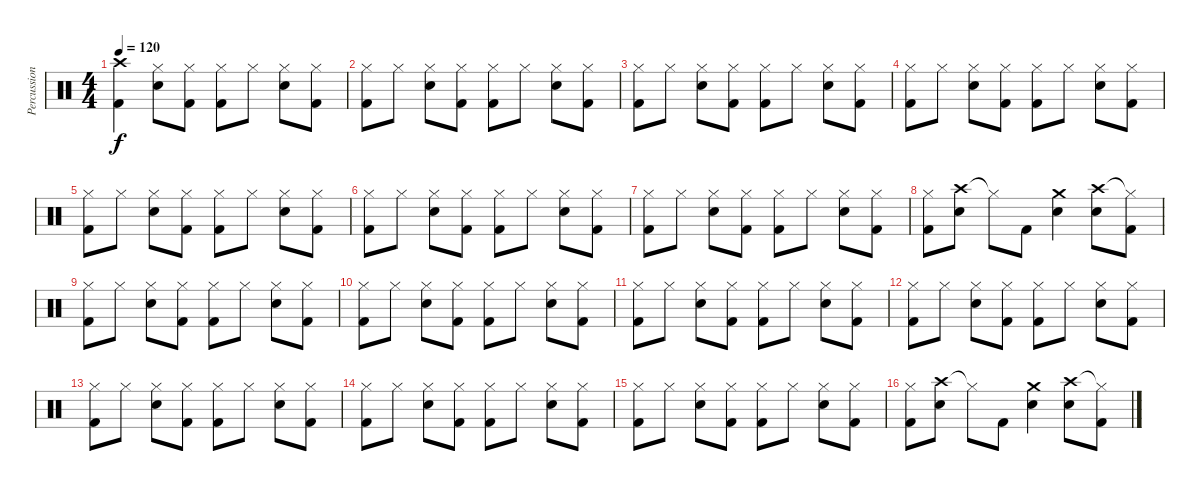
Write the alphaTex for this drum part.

\track ("Percussion" "Percussion") {instrument percussion}
\staff {score}
\articulation defaults
\ts (4 4)
\tempo 120
\clef neutral
\ks c
("Crash high (hit)" "Kick (hit) 2").4{dy f} ("Hi-Hat (closed)" "Electric Snare (hit)").8 ("Hi-Hat (closed)" "Kick (hit) 2").8 ("Hi-Hat (closed)" "Kick (hit) 2").8 "Hi-Hat (closed)".8 ("Hi-Hat (closed)" "Electric Snare (hit)").8 ("Hi-Hat (closed)" "Kick (hit) 2").8 |
("Hi-Hat (closed)" "Kick (hit) 2").8 "Hi-Hat (closed)".8 ("Hi-Hat (closed)" "Electric Snare (hit)").8 ("Hi-Hat (closed)" "Kick (hit) 2").8 ("Hi-Hat (closed)" "Kick (hit) 2").8 "Hi-Hat (closed)".8 ("Hi-Hat (closed)" "Electric Snare (hit)").8 ("Hi-Hat (closed)" "Kick (hit) 2").8 |
("Hi-Hat (closed)" "Kick (hit) 2").8 "Hi-Hat (closed)".8 ("Hi-Hat (closed)" "Electric Snare (hit)").8 ("Hi-Hat (closed)" "Kick (hit) 2").8 ("Hi-Hat (closed)" "Kick (hit) 2").8 "Hi-Hat (closed)".8 ("Hi-Hat (closed)" "Electric Snare (hit)").8 ("Hi-Hat (closed)" "Kick (hit) 2").8 |
("Hi-Hat (closed)" "Kick (hit) 2").8 "Hi-Hat (closed)".8 ("Hi-Hat (closed)" "Electric Snare (hit)").8 ("Hi-Hat (closed)" "Kick (hit) 2").8 ("Hi-Hat (closed)" "Kick (hit) 2").8 "Hi-Hat (closed)".8 ("Hi-Hat (closed)" "Electric Snare (hit)").8 ("Hi-Hat (closed)" "Kick (hit) 2").8 |
("Hi-Hat (closed)" "Kick (hit) 2").8 "Hi-Hat (closed)".8 ("Hi-Hat (closed)" "Electric Snare (hit)").8 ("Hi-Hat (closed)" "Kick (hit) 2").8 ("Hi-Hat (closed)" "Kick (hit) 2").8 "Hi-Hat (closed)".8 ("Hi-Hat (closed)" "Electric Snare (hit)").8 ("Hi-Hat (closed)" "Kick (hit) 2").8 |
("Hi-Hat (closed)" "Kick (hit) 2").8 "Hi-Hat (closed)".8 ("Hi-Hat (closed)" "Electric Snare (hit)").8 ("Hi-Hat (closed)" "Kick (hit) 2").8 ("Hi-Hat (closed)" "Kick (hit) 2").8 "Hi-Hat (closed)".8 ("Hi-Hat (closed)" "Electric Snare (hit)").8 ("Hi-Hat (closed)" "Kick (hit) 2").8 |
("Hi-Hat (closed)" "Kick (hit) 2").8 "Hi-Hat (closed)".8 ("Hi-Hat (closed)" "Electric Snare (hit)").8 ("Hi-Hat (closed)" "Kick (hit) 2").8 ("Hi-Hat (closed)" "Kick (hit) 2").8 "Hi-Hat (closed)".8 ("Hi-Hat (closed)" "Electric Snare (hit)").8 ("Hi-Hat (closed)" "Kick (hit) 2").8 |
("Hi-Hat (closed)" "Kick (hit) 2").8 ("Crash high (hit)" "Electric Snare (hit)").8 "Hi-Hat (closed)"{t}.8 "Kick (hit) 2".8 ("Crash medium (hit)" "Electric Snare (hit)").4 ("Crash high (hit)" "Electric Snare (hit)").8 ("Hi-Hat (closed)"{t} "Kick (hit) 2").8 |
("Hi-Hat (closed)" "Kick (hit) 2").8 "Hi-Hat (closed)".8 ("Hi-Hat (closed)" "Electric Snare (hit)").8 ("Hi-Hat (closed)" "Kick (hit) 2").8 ("Hi-Hat (closed)" "Kick (hit) 2").8 "Hi-Hat (closed)".8 ("Hi-Hat (closed)" "Electric Snare (hit)").8 ("Hi-Hat (closed)" "Kick (hit) 2").8 |
("Hi-Hat (closed)" "Kick (hit) 2").8 "Hi-Hat (closed)".8 ("Hi-Hat (closed)" "Electric Snare (hit)").8 ("Hi-Hat (closed)" "Kick (hit) 2").8 ("Hi-Hat (closed)" "Kick (hit) 2").8 "Hi-Hat (closed)".8 ("Hi-Hat (closed)" "Electric Snare (hit)").8 ("Hi-Hat (closed)" "Kick (hit) 2").8 |
("Hi-Hat (closed)" "Kick (hit) 2").8 "Hi-Hat (closed)".8 ("Hi-Hat (closed)" "Electric Snare (hit)").8 ("Hi-Hat (closed)" "Kick (hit) 2").8 ("Hi-Hat (closed)" "Kick (hit) 2").8 "Hi-Hat (closed)".8 ("Hi-Hat (closed)" "Electric Snare (hit)").8 ("Hi-Hat (closed)" "Kick (hit) 2").8 |
("Hi-Hat (closed)" "Kick (hit) 2").8 "Hi-Hat (closed)".8 ("Hi-Hat (closed)" "Electric Snare (hit)").8 ("Hi-Hat (closed)" "Kick (hit) 2").8 ("Hi-Hat (closed)" "Kick (hit) 2").8 "Hi-Hat (closed)".8 ("Hi-Hat (closed)" "Electric Snare (hit)").8 ("Hi-Hat (closed)" "Kick (hit) 2").8 |
("Hi-Hat (closed)" "Kick (hit) 2").8 "Hi-Hat (closed)".8 ("Hi-Hat (closed)" "Electric Snare (hit)").8 ("Hi-Hat (closed)" "Kick (hit) 2").8 ("Hi-Hat (closed)" "Kick (hit) 2").8 "Hi-Hat (closed)".8 ("Hi-Hat (closed)" "Electric Snare (hit)").8 ("Hi-Hat (closed)" "Kick (hit) 2").8 |
("Hi-Hat (closed)" "Kick (hit) 2").8 "Hi-Hat (closed)".8 ("Hi-Hat (closed)" "Electric Snare (hit)").8 ("Hi-Hat (closed)" "Kick (hit) 2").8 ("Hi-Hat (closed)" "Kick (hit) 2").8 "Hi-Hat (closed)".8 ("Hi-Hat (closed)" "Electric Snare (hit)").8 ("Hi-Hat (closed)" "Kick (hit) 2").8 |
("Hi-Hat (closed)" "Kick (hit) 2").8 "Hi-Hat (closed)".8 ("Hi-Hat (closed)" "Electric Snare (hit)").8 ("Hi-Hat (closed)" "Kick (hit) 2").8 ("Hi-Hat (closed)" "Kick (hit) 2").8 "Hi-Hat (closed)".8 ("Hi-Hat (closed)" "Electric Snare (hit)").8 ("Hi-Hat (closed)" "Kick (hit) 2").8 |
("Hi-Hat (closed)" "Kick (hit) 2").8 ("Crash high (hit)" "Electric Snare (hit)").8 "Hi-Hat (closed)"{t}.8 "Kick (hit) 2".8 ("Crash medium (hit)" "Electric Snare (hit)").4 ("Crash high (hit)" "Electric Snare (hit)").8 ("Hi-Hat (closed)"{t} "Kick (hit) 2").8
